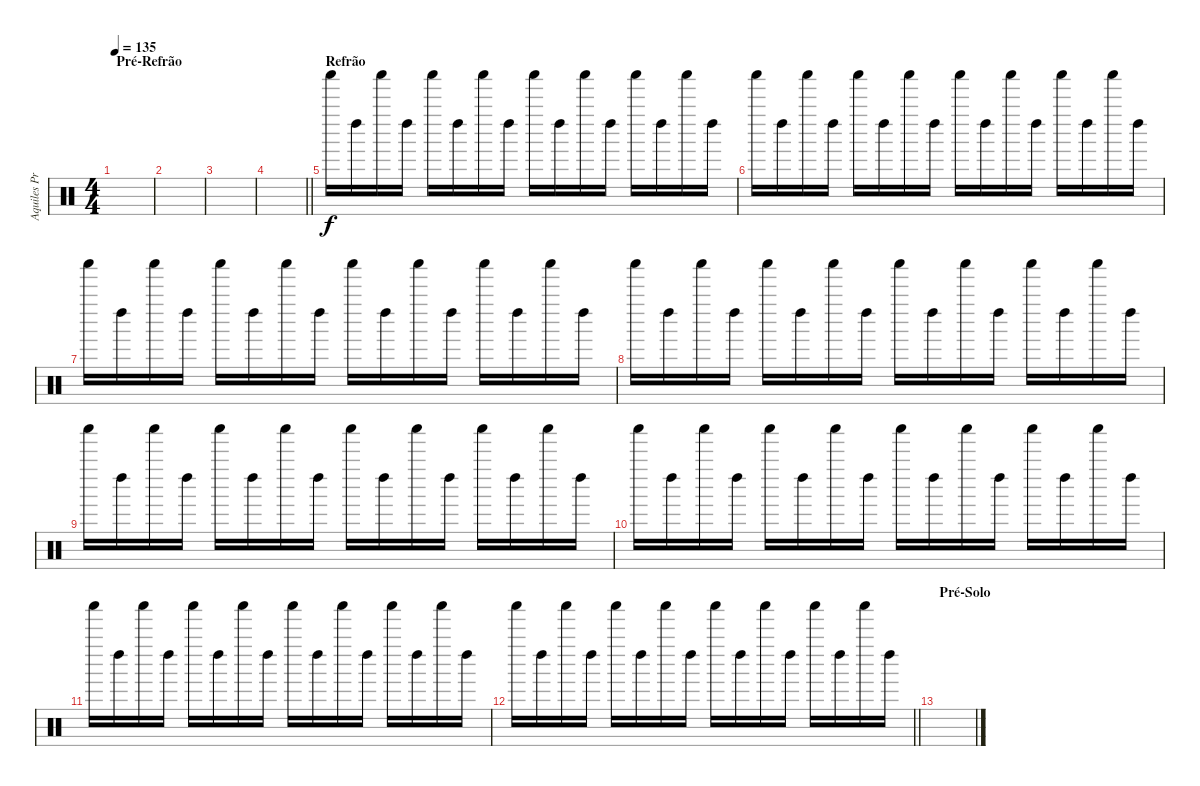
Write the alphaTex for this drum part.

\track ("Aquiles Priester" "Aquiles Pr") {instrument percussion}
\staff {score}
\articulation defaults
\ts (4 4)
\section ("" "Pré-Refrão")
\tempo 135
\clef neutral
\ks c
|
|
|
\barLineRight lightlight
|
\section ("" "Refrão")
"Shaker (hit)".16 "Left Maraca (hit)".16 "Shaker (hit)".16 "Left Maraca (hit)".16 "Shaker (hit)".16 "Left Maraca (hit)".16 "Shaker (hit)".16 "Left Maraca (hit)".16 "Shaker (hit)".16 "Left Maraca (hit)".16 "Shaker (hit)".16 "Left Maraca (hit)".16 "Shaker (hit)".16 "Left Maraca (hit)".16 "Shaker (hit)".16 "Left Maraca (hit)".16 |
"Shaker (hit)".16 "Left Maraca (hit)".16 "Shaker (hit)".16 "Left Maraca (hit)".16 "Shaker (hit)".16 "Left Maraca (hit)".16 "Shaker (hit)".16 "Left Maraca (hit)".16 "Shaker (hit)".16 "Left Maraca (hit)".16 "Shaker (hit)".16 "Left Maraca (hit)".16 "Shaker (hit)".16 "Left Maraca (hit)".16 "Shaker (hit)".16 "Left Maraca (hit)".16 |
"Shaker (hit)".16 "Left Maraca (hit)".16 "Shaker (hit)".16 "Left Maraca (hit)".16 "Shaker (hit)".16 "Left Maraca (hit)".16 "Shaker (hit)".16 "Left Maraca (hit)".16 "Shaker (hit)".16 "Left Maraca (hit)".16 "Shaker (hit)".16 "Left Maraca (hit)".16 "Shaker (hit)".16 "Left Maraca (hit)".16 "Shaker (hit)".16 "Left Maraca (hit)".16 |
"Shaker (hit)".16 "Left Maraca (hit)".16 "Shaker (hit)".16 "Left Maraca (hit)".16 "Shaker (hit)".16 "Left Maraca (hit)".16 "Shaker (hit)".16 "Left Maraca (hit)".16 "Shaker (hit)".16 "Left Maraca (hit)".16 "Shaker (hit)".16 "Left Maraca (hit)".16 "Shaker (hit)".16 "Left Maraca (hit)".16 "Shaker (hit)".16 "Left Maraca (hit)".16 |
"Shaker (hit)".16 "Left Maraca (hit)".16 "Shaker (hit)".16 "Left Maraca (hit)".16 "Shaker (hit)".16 "Left Maraca (hit)".16 "Shaker (hit)".16 "Left Maraca (hit)".16 "Shaker (hit)".16 "Left Maraca (hit)".16 "Shaker (hit)".16 "Left Maraca (hit)".16 "Shaker (hit)".16 "Left Maraca (hit)".16 "Shaker (hit)".16 "Left Maraca (hit)".16 |
"Shaker (hit)".16 "Left Maraca (hit)".16 "Shaker (hit)".16 "Left Maraca (hit)".16 "Shaker (hit)".16 "Left Maraca (hit)".16 "Shaker (hit)".16 "Left Maraca (hit)".16 "Shaker (hit)".16 "Left Maraca (hit)".16 "Shaker (hit)".16 "Left Maraca (hit)".16 "Shaker (hit)".16 "Left Maraca (hit)".16 "Shaker (hit)".16 "Left Maraca (hit)".16 |
"Shaker (hit)".16 "Left Maraca (hit)".16 "Shaker (hit)".16 "Left Maraca (hit)".16 "Shaker (hit)".16 "Left Maraca (hit)".16 "Shaker (hit)".16 "Left Maraca (hit)".16 "Shaker (hit)".16 "Left Maraca (hit)".16 "Shaker (hit)".16 "Left Maraca (hit)".16 "Shaker (hit)".16 "Left Maraca (hit)".16 "Shaker (hit)".16 "Left Maraca (hit)".16 |
\barLineRight lightlight "Shaker (hit)".16 "Left Maraca (hit)".16 "Shaker (hit)".16 "Left Maraca (hit)".16 "Shaker (hit)".16 "Left Maraca (hit)".16 "Shaker (hit)".16 "Left Maraca (hit)".16 "Shaker (hit)".16 "Left Maraca (hit)".16 "Shaker (hit)".16 "Left Maraca (hit)".16 "Shaker (hit)".16 "Left Maraca (hit)".16 "Shaker (hit)".16 "Left Maraca (hit)".16
|
\section ("" "Pré-Solo")
